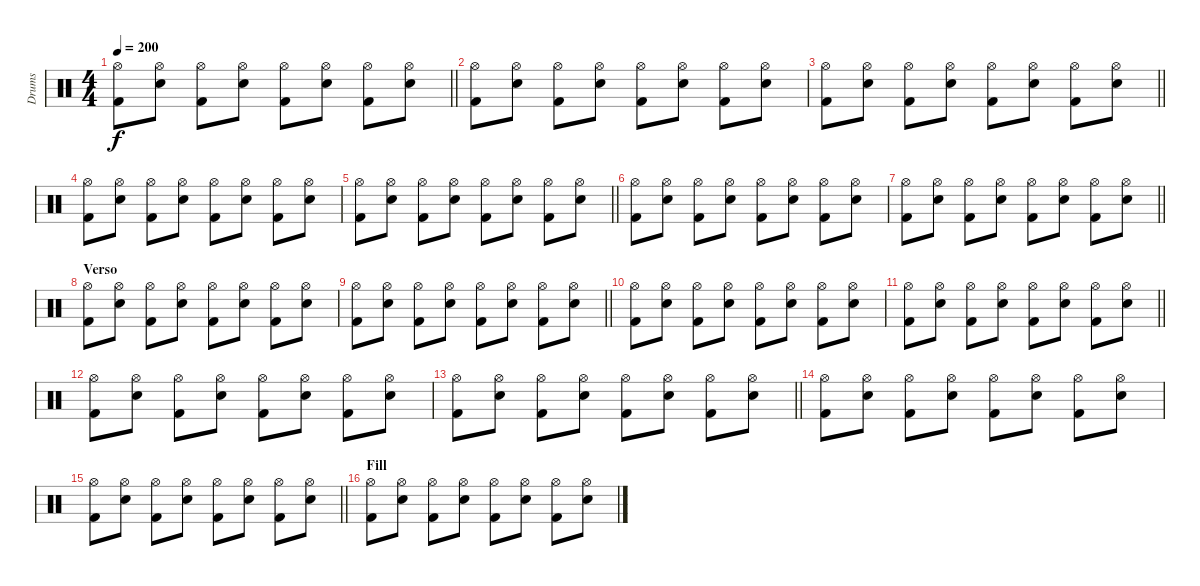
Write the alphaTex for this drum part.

\track ("Drums" "Drums") {instrument percussion}
\staff {score}
\articulation defaults
\ts (4 4)
\tempo 200
\clef neutral
\barLineRight lightlight
\ks c
("Hi-Hat (open)" "Kick (hit) 2").8{dy f} ("Hi-Hat (open)" "Electric Snare (hit)").8 ("Hi-Hat (open)" "Kick (hit) 2").8 ("Hi-Hat (open)" "Electric Snare (hit)").8 ("Hi-Hat (open)" "Kick (hit) 2").8 ("Hi-Hat (open)" "Electric Snare (hit)").8 ("Hi-Hat (open)" "Kick (hit) 2").8 ("Hi-Hat (open)" "Electric Snare (hit)").8 |
("Hi-Hat (open)" "Kick (hit) 2").8 ("Hi-Hat (open)" "Electric Snare (hit)").8 ("Hi-Hat (open)" "Kick (hit) 2").8 ("Hi-Hat (open)" "Electric Snare (hit)").8 ("Hi-Hat (open)" "Kick (hit) 2").8 ("Hi-Hat (open)" "Electric Snare (hit)").8 ("Hi-Hat (open)" "Kick (hit) 2").8 ("Hi-Hat (open)" "Electric Snare (hit)").8 |
\barLineRight lightlight
("Hi-Hat (open)" "Kick (hit) 2").8 ("Hi-Hat (open)" "Electric Snare (hit)").8 ("Hi-Hat (open)" "Kick (hit) 2").8 ("Hi-Hat (open)" "Electric Snare (hit)").8 ("Hi-Hat (open)" "Kick (hit) 2").8 ("Hi-Hat (open)" "Electric Snare (hit)").8 ("Hi-Hat (open)" "Kick (hit) 2").8 ("Hi-Hat (open)" "Electric Snare (hit)").8 |
("Hi-Hat (open)" "Kick (hit) 2").8 ("Hi-Hat (open)" "Electric Snare (hit)").8 ("Hi-Hat (open)" "Kick (hit) 2").8 ("Hi-Hat (open)" "Electric Snare (hit)").8 ("Hi-Hat (open)" "Kick (hit) 2").8 ("Hi-Hat (open)" "Electric Snare (hit)").8 ("Hi-Hat (open)" "Kick (hit) 2").8 ("Hi-Hat (open)" "Electric Snare (hit)").8 |
\barLineRight lightlight
("Hi-Hat (open)" "Kick (hit) 2").8 ("Hi-Hat (open)" "Electric Snare (hit)").8 ("Hi-Hat (open)" "Kick (hit) 2").8 ("Hi-Hat (open)" "Electric Snare (hit)").8 ("Hi-Hat (open)" "Kick (hit) 2").8 ("Hi-Hat (open)" "Electric Snare (hit)").8 ("Hi-Hat (open)" "Kick (hit) 2").8 ("Hi-Hat (open)" "Electric Snare (hit)").8 |
("Hi-Hat (open)" "Kick (hit) 2").8 ("Hi-Hat (open)" "Electric Snare (hit)").8 ("Hi-Hat (open)" "Kick (hit) 2").8 ("Hi-Hat (open)" "Electric Snare (hit)").8 ("Hi-Hat (open)" "Kick (hit) 2").8 ("Hi-Hat (open)" "Electric Snare (hit)").8 ("Hi-Hat (open)" "Kick (hit) 2").8 ("Hi-Hat (open)" "Electric Snare (hit)").8 |
\barLineRight lightlight
("Hi-Hat (open)" "Kick (hit) 2").8 ("Hi-Hat (open)" "Electric Snare (hit)").8 ("Hi-Hat (open)" "Kick (hit) 2").8 ("Hi-Hat (open)" "Electric Snare (hit)").8 ("Hi-Hat (open)" "Kick (hit) 2").8 ("Hi-Hat (open)" "Electric Snare (hit)").8 ("Hi-Hat (open)" "Kick (hit) 2").8 ("Hi-Hat (open)" "Electric Snare (hit)").8 |
\section ("" "Verso")
("Hi-Hat (open)" "Kick (hit) 2").8 ("Hi-Hat (open)" "Electric Snare (hit)").8 ("Hi-Hat (open)" "Kick (hit) 2").8 ("Hi-Hat (open)" "Electric Snare (hit)").8 ("Hi-Hat (open)" "Kick (hit) 2").8 ("Hi-Hat (open)" "Electric Snare (hit)").8 ("Hi-Hat (open)" "Kick (hit) 2").8 ("Hi-Hat (open)" "Electric Snare (hit)").8 |
\barLineRight lightlight
("Hi-Hat (open)" "Kick (hit) 2").8 ("Hi-Hat (open)" "Electric Snare (hit)").8 ("Hi-Hat (open)" "Kick (hit) 2").8 ("Hi-Hat (open)" "Electric Snare (hit)").8 ("Hi-Hat (open)" "Kick (hit) 2").8 ("Hi-Hat (open)" "Electric Snare (hit)").8 ("Hi-Hat (open)" "Kick (hit) 2").8 ("Hi-Hat (open)" "Electric Snare (hit)").8 |
("Hi-Hat (open)" "Kick (hit) 2").8 ("Hi-Hat (open)" "Electric Snare (hit)").8 ("Hi-Hat (open)" "Kick (hit) 2").8 ("Hi-Hat (open)" "Electric Snare (hit)").8 ("Hi-Hat (open)" "Kick (hit) 2").8 ("Hi-Hat (open)" "Electric Snare (hit)").8 ("Hi-Hat (open)" "Kick (hit) 2").8 ("Hi-Hat (open)" "Electric Snare (hit)").8 |
\barLineRight lightlight
("Hi-Hat (open)" "Kick (hit) 2").8 ("Hi-Hat (open)" "Electric Snare (hit)").8 ("Hi-Hat (open)" "Kick (hit) 2").8 ("Hi-Hat (open)" "Electric Snare (hit)").8 ("Hi-Hat (open)" "Kick (hit) 2").8 ("Hi-Hat (open)" "Electric Snare (hit)").8 ("Hi-Hat (open)" "Kick (hit) 2").8 ("Hi-Hat (open)" "Electric Snare (hit)").8 |
("Hi-Hat (open)" "Kick (hit) 2").8 ("Hi-Hat (open)" "Electric Snare (hit)").8 ("Hi-Hat (open)" "Kick (hit) 2").8 ("Hi-Hat (open)" "Electric Snare (hit)").8 ("Hi-Hat (open)" "Kick (hit) 2").8 ("Hi-Hat (open)" "Electric Snare (hit)").8 ("Hi-Hat (open)" "Kick (hit) 2").8 ("Hi-Hat (open)" "Electric Snare (hit)").8 |
\barLineRight lightlight
("Hi-Hat (open)" "Kick (hit) 2").8 ("Hi-Hat (open)" "Electric Snare (hit)").8 ("Hi-Hat (open)" "Kick (hit) 2").8 ("Hi-Hat (open)" "Electric Snare (hit)").8 ("Hi-Hat (open)" "Kick (hit) 2").8 ("Hi-Hat (open)" "Electric Snare (hit)").8 ("Hi-Hat (open)" "Kick (hit) 2").8 ("Hi-Hat (open)" "Electric Snare (hit)").8 |
("Hi-Hat (open)" "Kick (hit) 2").8 ("Hi-Hat (open)" "Electric Snare (hit)").8 ("Hi-Hat (open)" "Kick (hit) 2").8 ("Hi-Hat (open)" "Electric Snare (hit)").8 ("Hi-Hat (open)" "Kick (hit) 2").8 ("Hi-Hat (open)" "Electric Snare (hit)").8 ("Hi-Hat (open)" "Kick (hit) 2").8 ("Hi-Hat (open)" "Electric Snare (hit)").8 |
\barLineRight lightlight
("Hi-Hat (open)" "Kick (hit) 2").8 ("Hi-Hat (open)" "Electric Snare (hit)").8 ("Hi-Hat (open)" "Kick (hit) 2").8 ("Hi-Hat (open)" "Electric Snare (hit)").8 ("Hi-Hat (open)" "Kick (hit) 2").8 ("Hi-Hat (open)" "Electric Snare (hit)").8 ("Hi-Hat (open)" "Kick (hit) 2").8 ("Hi-Hat (open)" "Electric Snare (hit)").8 |
\section ("" "Fill")
("Hi-Hat (open)" "Kick (hit) 2").8 ("Hi-Hat (open)" "Electric Snare (hit)").8 ("Hi-Hat (open)" "Kick (hit) 2").8 ("Hi-Hat (open)" "Electric Snare (hit)").8 ("Hi-Hat (open)" "Kick (hit) 2").8 ("Hi-Hat (open)" "Electric Snare (hit)").8 ("Hi-Hat (open)" "Kick (hit) 2").8 ("Hi-Hat (open)" "Electric Snare (hit)").8
